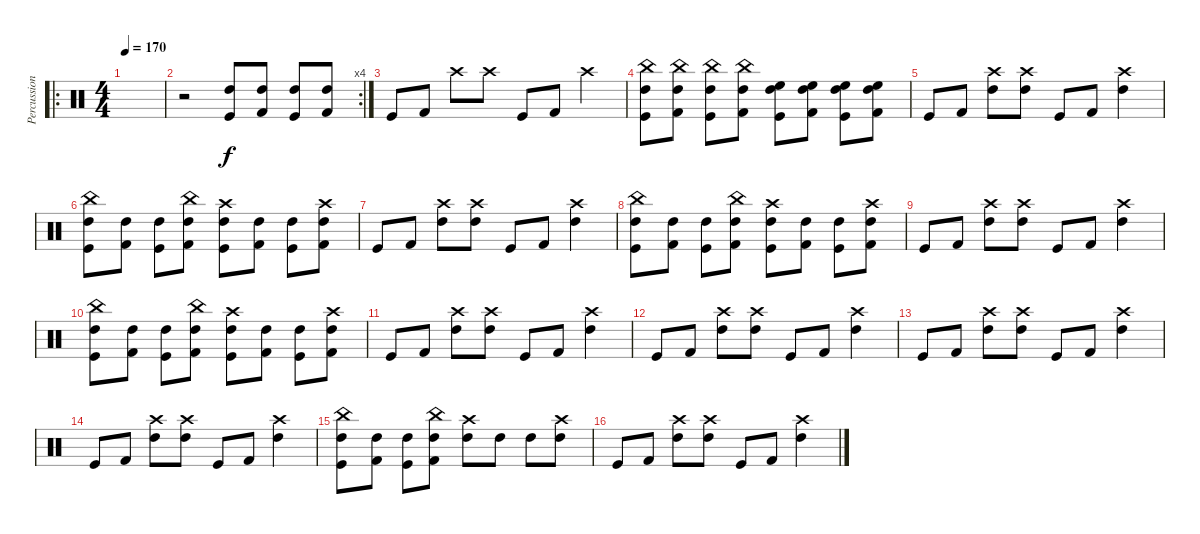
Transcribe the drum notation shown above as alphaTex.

\track ("Percussions" "Percussion") {instrument percussion}
\staff {score}
\articulation defaults
\ro
\ts (4 4)
\tempo 170
\clef neutral
\ks c
|
\rc 4
r.2 ("High Tom (hit)" "Kick (hit)").8 ("High Tom (hit)" "Kick (hit) 2").8 ("High Tom (hit)" "Kick (hit)").8 ("High Tom (hit)" "Kick (hit) 2").8 |
"Kick (hit)".8 "Kick (hit) 2".8 "Crash high (hit)".8 "Crash high (hit)".8 "Kick (hit)".8 "Kick (hit) 2".8 "Crash high (hit)".4 |
("China (hit)" "Kick (hit)" "High Tom (hit)").8 ("China (hit)" "Kick (hit) 2" "High Tom (hit)").8 ("China (hit)" "Kick (hit)" "High Tom (hit)").8 ("China (hit)" "Kick (hit) 2" "High Tom (hit)").8 ("High Floor Tom (hit)" "Kick (hit)" "High Tom (hit)").8 ("High Floor Tom (hit)" "Kick (hit) 2" "High Tom (hit)").8 ("High Floor Tom (hit)" "Kick (hit)" "High Tom (hit)").8 ("High Floor Tom (hit)" "Kick (hit) 2" "High Tom (hit)").8 |
"Kick (hit)".8 "Kick (hit) 2".8 ("Crash high (hit)" "High Tom (hit)").8 ("Crash high (hit)" "High Tom (hit)").8 "Kick (hit)".8 "Kick (hit) 2".8 ("Crash high (hit)" "High Tom (hit)").4 |
("China (hit)" "Kick (hit)" "High Tom (hit)").8 ("Kick (hit) 2" "High Tom (hit)").8 ("Kick (hit)" "High Tom (hit)").8 ("China (hit)" "Kick (hit) 2" "High Tom (hit)").8 ("Crash high (hit)" "Kick (hit)" "High Tom (hit)").8 ("Kick (hit) 2" "High Tom (hit)").8 ("Kick (hit)" "High Tom (hit)").8 ("Crash high (hit)" "Kick (hit) 2" "High Tom (hit)").8 |
"Kick (hit)".8 "Kick (hit) 2".8 ("Crash high (hit)" "High Tom (hit)").8 ("Crash high (hit)" "High Tom (hit)").8 "Kick (hit)".8 "Kick (hit) 2".8 ("Crash high (hit)" "High Tom (hit)").4 |
("China (hit)" "Kick (hit)" "High Tom (hit)").8 ("Kick (hit) 2" "High Tom (hit)").8 ("Kick (hit)" "High Tom (hit)").8 ("China (hit)" "Kick (hit) 2" "High Tom (hit)").8 ("Crash high (hit)" "Kick (hit)" "High Tom (hit)").8 ("Kick (hit) 2" "High Tom (hit)").8 ("Kick (hit)" "High Tom (hit)").8 ("Crash high (hit)" "Kick (hit) 2" "High Tom (hit)").8 |
"Kick (hit)".8 "Kick (hit) 2".8 ("Crash high (hit)" "High Tom (hit)").8 ("Crash high (hit)" "High Tom (hit)").8 "Kick (hit)".8 "Kick (hit) 2".8 ("Crash high (hit)" "High Tom (hit)").4 |
("China (hit)" "Kick (hit)" "High Tom (hit)").8 ("Kick (hit) 2" "High Tom (hit)").8 ("Kick (hit)" "High Tom (hit)").8 ("China (hit)" "Kick (hit) 2" "High Tom (hit)").8 ("Crash high (hit)" "Kick (hit)" "High Tom (hit)").8 ("Kick (hit) 2" "High Tom (hit)").8 ("Kick (hit)" "High Tom (hit)").8 ("Crash high (hit)" "Kick (hit) 2" "High Tom (hit)").8 |
"Kick (hit)".8 "Kick (hit) 2".8 ("Crash high (hit)" "High Tom (hit)").8 ("Crash high (hit)" "High Tom (hit)").8 "Kick (hit)".8 "Kick (hit) 2".8 ("Crash high (hit)" "High Tom (hit)").4 |
"Kick (hit)".8 "Kick (hit) 2".8 ("Crash high (hit)" "High Tom (hit)").8 ("Crash high (hit)" "High Tom (hit)").8 "Kick (hit)".8 "Kick (hit) 2".8 ("Crash high (hit)" "High Tom (hit)").4 |
"Kick (hit)".8 "Kick (hit) 2".8 ("Crash high (hit)" "High Tom (hit)").8 ("Crash high (hit)" "High Tom (hit)").8 "Kick (hit)".8 "Kick (hit) 2".8 ("Crash high (hit)" "High Tom (hit)").4 |
"Kick (hit)".8 "Kick (hit) 2".8 ("Crash high (hit)" "High Tom (hit)").8 ("Crash high (hit)" "High Tom (hit)").8 "Kick (hit)".8 "Kick (hit) 2".8 ("Crash high (hit)" "High Tom (hit)").4 |
("China (hit)" "Kick (hit)" "High Tom (hit)").8 ("Kick (hit) 2" "High Tom (hit)").8 ("Kick (hit)" "High Tom (hit)").8 ("China (hit)" "Kick (hit) 2" "High Tom (hit)").8 ("Crash high (hit)" "High Tom (hit)").8 "High Tom (hit)".8 "High Tom (hit)".8 ("Crash high (hit)" "High Tom (hit)").8 |
"Kick (hit)".8 "Kick (hit) 2".8 ("Crash high (hit)" "High Tom (hit)").8 ("Crash high (hit)" "High Tom (hit)").8 "Kick (hit)".8 "Kick (hit) 2".8 ("Crash high (hit)" "High Tom (hit)").4
